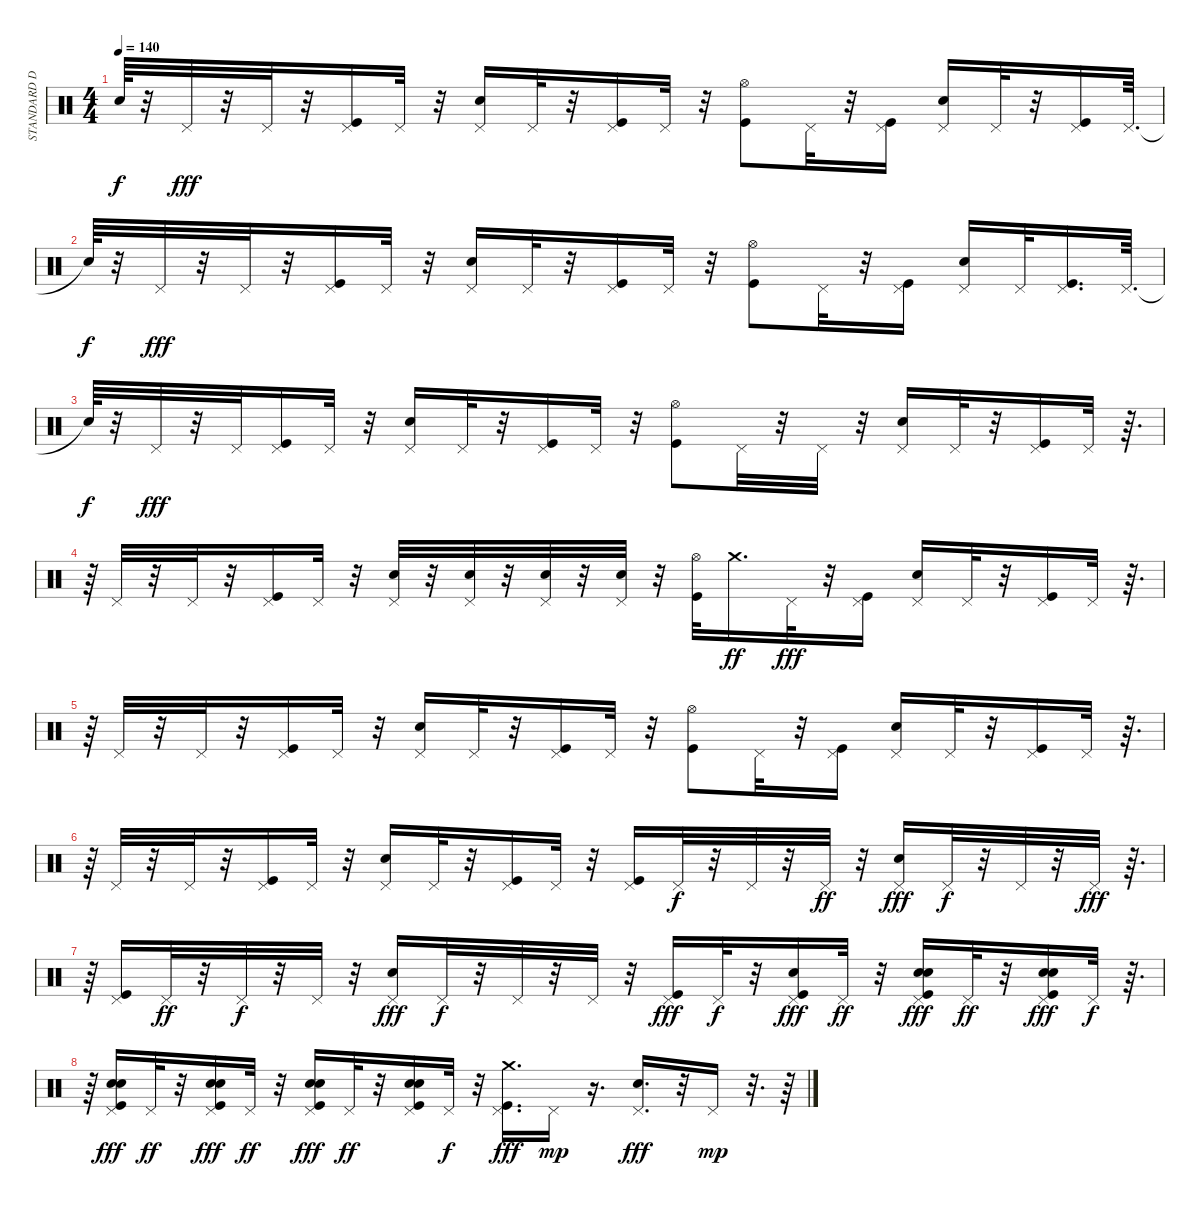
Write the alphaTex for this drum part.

\track ("STANDARD DRUMS" "STANDARD D") {instrument percussion}
\staff {score}
\articulation defaults
\ts (4 4)
\tempo 140
\clef neutral
\ks c "Snare (hit)"{t}.64{dy f}
r.32 "Pedal Hi-Hat (hit)".32{dy fff} r.32 "Pedal Hi-Hat (hit)".32 r.32 ("Kick (hit)" "Pedal Hi-Hat (hit)").16 "Pedal Hi-Hat (hit)".32 r.32 ("Snare (hit) 2" "Pedal Hi-Hat (hit)").16 "Pedal Hi-Hat (hit)".32 r.32 ("Kick (hit)" "Pedal Hi-Hat (hit)").16 "Pedal Hi-Hat (hit)".32 r.32 ("Kick (hit)" "Hi-Hat (open)").8 "Pedal Hi-Hat (hit)".32 r.32 ("Kick (hit)" "Pedal Hi-Hat (hit)").16 ("Snare (hit) 2" "Pedal Hi-Hat (hit)").16 "Pedal Hi-Hat (hit)".32 r.32 ("Kick (hit)" "Pedal Hi-Hat (hit)").16 "Pedal Hi-Hat (hit)".64{d} |
"Snare (hit)"{t}.64{dy f} r.32 "Pedal Hi-Hat (hit)".32{dy fff} r.32 "Pedal Hi-Hat (hit)".32 r.32 ("Kick (hit)" "Pedal Hi-Hat (hit)").16 "Pedal Hi-Hat (hit)".32 r.32 ("Snare (hit) 2" "Pedal Hi-Hat (hit)").16 "Pedal Hi-Hat (hit)".32 r.32 ("Kick (hit)" "Pedal Hi-Hat (hit)").16 "Pedal Hi-Hat (hit)".32 r.32 ("Kick (hit)" "Hi-Hat (open)").8 "Pedal Hi-Hat (hit)".32 r.32 ("Kick (hit)" "Pedal Hi-Hat (hit)").16 ("Snare (hit) 2" "Pedal Hi-Hat (hit)").16 "Pedal Hi-Hat (hit)".32 ("Kick (hit)" "Pedal Hi-Hat (hit)").16{d} "Pedal Hi-Hat (hit)".64{d} |
"Snare (hit)"{t}.64{dy f} r.32 "Pedal Hi-Hat (hit)".32{dy fff} r.32 "Pedal Hi-Hat (hit)".32 ("Kick (hit)" "Pedal Hi-Hat (hit)").16 "Pedal Hi-Hat (hit)".32 r.32 ("Snare (hit) 2" "Pedal Hi-Hat (hit)").16 "Pedal Hi-Hat (hit)".32 r.32 ("Kick (hit)" "Pedal Hi-Hat (hit)").16 "Pedal Hi-Hat (hit)".32 r.32 ("Kick (hit)" "Hi-Hat (open)").8 "Pedal Hi-Hat (hit)".32 r.32 "Pedal Hi-Hat (hit)".32 r.32 ("Snare (hit) 2" "Pedal Hi-Hat (hit)").16 "Pedal Hi-Hat (hit)".32 r.32 ("Kick (hit)" "Pedal Hi-Hat (hit)").16 "Pedal Hi-Hat (hit)".32 r.64{d} |
r.64 "Pedal Hi-Hat (hit)".32 r.32 "Pedal Hi-Hat (hit)".32 r.32 ("Kick (hit)" "Pedal Hi-Hat (hit)").16 "Pedal Hi-Hat (hit)".32 r.32 ("Snare (hit) 2" "Pedal Hi-Hat (hit)").32 r.32 ("Snare (hit) 2" "Pedal Hi-Hat (hit)").32 r.32 ("Snare (hit) 2" "Pedal Hi-Hat (hit)").32 r.32 ("Snare (hit) 2" "Pedal Hi-Hat (hit)").32 r.32 ("Kick (hit)" "Hi-Hat (open)").32 "Crash medium (hit)".16{d dy ff} "Pedal Hi-Hat (hit)".32{dy fff} r.32 ("Kick (hit)" "Pedal Hi-Hat (hit)").16 ("Snare (hit) 2" "Pedal Hi-Hat (hit)").16 "Pedal Hi-Hat (hit)".32 r.32 ("Kick (hit)" "Pedal Hi-Hat (hit)").16 "Pedal Hi-Hat (hit)".32 r.64{d} |
r.64 "Pedal Hi-Hat (hit)".32 r.32 "Pedal Hi-Hat (hit)".32 r.32 ("Kick (hit)" "Pedal Hi-Hat (hit)").16 "Pedal Hi-Hat (hit)".32 r.32 ("Snare (hit) 2" "Pedal Hi-Hat (hit)").16 "Pedal Hi-Hat (hit)".32 r.32 ("Kick (hit)" "Pedal Hi-Hat (hit)").16 "Pedal Hi-Hat (hit)".32 r.32 ("Kick (hit)" "Hi-Hat (open)").8 "Pedal Hi-Hat (hit)".32 r.32 ("Kick (hit)" "Pedal Hi-Hat (hit)").16 ("Snare (hit) 2" "Pedal Hi-Hat (hit)").16 "Pedal Hi-Hat (hit)".32 r.32 ("Kick (hit)" "Pedal Hi-Hat (hit)").16 "Pedal Hi-Hat (hit)".32 r.64{d} |
r.64 "Pedal Hi-Hat (hit)".32 r.32 "Pedal Hi-Hat (hit)".32 r.32 ("Kick (hit)" "Pedal Hi-Hat (hit)").16 "Pedal Hi-Hat (hit)".32 r.32 ("Snare (hit) 2" "Pedal Hi-Hat (hit)").16 "Pedal Hi-Hat (hit)".32 r.32 ("Kick (hit)" "Pedal Hi-Hat (hit)").16 "Pedal Hi-Hat (hit)".32 r.32 ("Kick (hit)" "Pedal Hi-Hat (hit)").16 "Pedal Hi-Hat (hit)".32{dy f} r.32 "Pedal Hi-Hat (hit)".32 r.32 "Pedal Hi-Hat (hit)".32{dy ff} r.32 ("Snare (hit) 2" "Pedal Hi-Hat (hit)").16{dy fff} "Pedal Hi-Hat (hit)".32{dy f} r.32 "Pedal Hi-Hat (hit)".32 r.32 "Pedal Hi-Hat (hit)".32{dy fff} r.64{d} |
r.64 ("Kick (hit)" "Pedal Hi-Hat (hit)").16 "Pedal Hi-Hat (hit)".32{dy ff} r.32 "Pedal Hi-Hat (hit)".32{dy f} r.32 "Pedal Hi-Hat (hit)".32 r.32 ("Snare (hit) 2" "Pedal Hi-Hat (hit)").16{dy fff} "Pedal Hi-Hat (hit)".32{dy f} r.32 "Pedal Hi-Hat (hit)".32 r.32 "Pedal Hi-Hat (hit)".32 r.32 ("Kick (hit)" "Pedal Hi-Hat (hit)").16{dy fff} "Pedal Hi-Hat (hit)".32{dy f} r.32 ("Snare (hit) 2" "Kick (hit)" "Pedal Hi-Hat (hit)").16{dy fff} "Pedal Hi-Hat (hit)".32{dy ff} r.32 ("Snare (hit) 2" "Electric Snare (hit)" "Kick (hit)" "Pedal Hi-Hat (hit)").16{dy fff} "Pedal Hi-Hat (hit)".32{dy ff} r.32 ("Electric Snare (hit)" "Snare (hit) 2" "Kick (hit)" "Pedal Hi-Hat (hit)").16{dy fff} "Pedal Hi-Hat (hit)".32{dy f} r.64{d} |
r.64 ("Electric Snare (hit)" "Snare (hit) 2" "Kick (hit)" "Pedal Hi-Hat (hit)").16{dy fff} "Pedal Hi-Hat (hit)".32{dy ff} r.32 ("Electric Snare (hit)" "Snare (hit) 2" "Kick (hit)" "Pedal Hi-Hat (hit)").16{dy fff} "Pedal Hi-Hat (hit)".32{dy ff} r.32 ("Electric Snare (hit)" "Snare (hit) 2" "Kick (hit)" "Pedal Hi-Hat (hit)").16{dy fff} "Pedal Hi-Hat (hit)".32{dy ff} r.32 ("Snare (hit) 2" "Electric Snare (hit)" "Kick (hit)" "Pedal Hi-Hat (hit)").16 "Pedal Hi-Hat (hit)".32{dy f} r.32 ("Kick (hit)" "Pedal Hi-Hat (hit)" "Crash medium (hit)").16{d dy fff} "Pedal Hi-Hat (hit)".16{dy mp} r.16{d} ("Pedal Hi-Hat (hit)" "Snare (hit) 2").16{d dy fff} r.32 "Pedal Hi-Hat (hit)".16{dy mp} r.32{d} r.64
